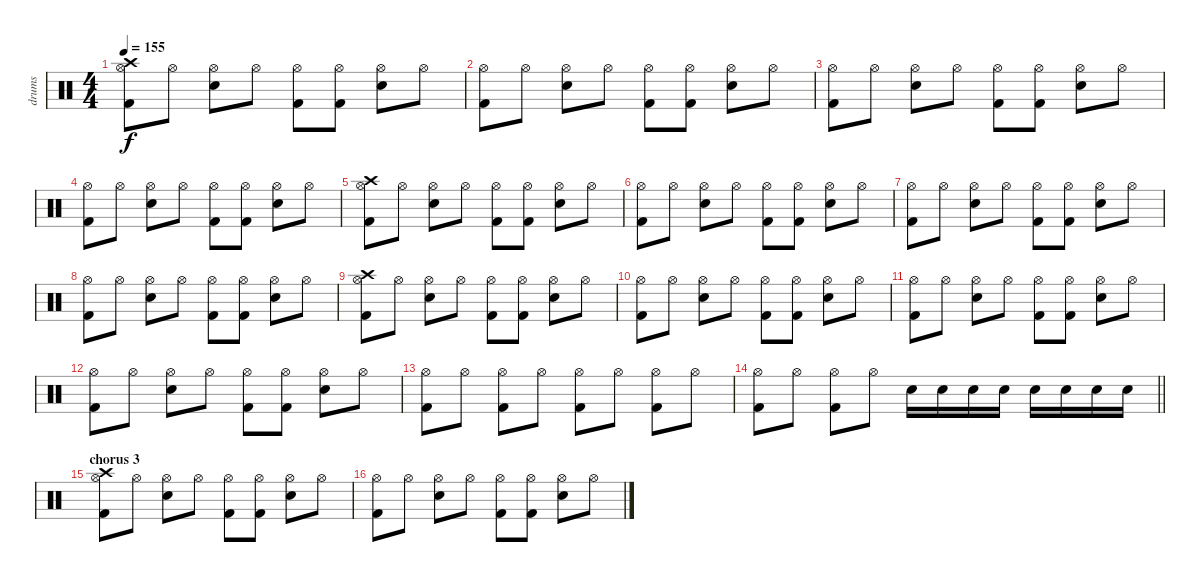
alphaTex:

\track ("drums" "drums") {instrument percussion}
\staff {score}
\articulation defaults
\ts (4 4)
\tempo 155
\clef neutral
\ks c
("Kick (hit) 2" "Hi-Hat (open)" "Crash high (hit)").8{dy f} "Hi-Hat (open)".8 ("Electric Snare (hit)" "Hi-Hat (open)").8 "Hi-Hat (open)".8 ("Kick (hit) 2" "Hi-Hat (open)").8 ("Kick (hit) 2" "Hi-Hat (open)").8 ("Electric Snare (hit)" "Hi-Hat (open)").8 "Hi-Hat (open)".8 |
("Kick (hit) 2" "Hi-Hat (open)").8 "Hi-Hat (open)".8 ("Electric Snare (hit)" "Hi-Hat (open)").8 "Hi-Hat (open)".8 ("Kick (hit) 2" "Hi-Hat (open)").8 ("Kick (hit) 2" "Hi-Hat (open)").8 ("Electric Snare (hit)" "Hi-Hat (open)").8 "Hi-Hat (open)".8 |
("Kick (hit) 2" "Hi-Hat (open)").8 "Hi-Hat (open)".8 ("Electric Snare (hit)" "Hi-Hat (open)").8 "Hi-Hat (open)".8 ("Kick (hit) 2" "Hi-Hat (open)").8 ("Kick (hit) 2" "Hi-Hat (open)").8 ("Electric Snare (hit)" "Hi-Hat (open)").8 "Hi-Hat (open)".8 |
("Kick (hit) 2" "Hi-Hat (open)").8 "Hi-Hat (open)".8 ("Electric Snare (hit)" "Hi-Hat (open)").8 "Hi-Hat (open)".8 ("Kick (hit) 2" "Hi-Hat (open)").8 ("Kick (hit) 2" "Hi-Hat (open)").8 ("Electric Snare (hit)" "Hi-Hat (open)").8 "Hi-Hat (open)".8 |
("Kick (hit) 2" "Hi-Hat (open)" "Crash high (hit)").8 "Hi-Hat (open)".8 ("Electric Snare (hit)" "Hi-Hat (open)").8 "Hi-Hat (open)".8 ("Kick (hit) 2" "Hi-Hat (open)").8 ("Kick (hit) 2" "Hi-Hat (open)").8 ("Electric Snare (hit)" "Hi-Hat (open)").8 "Hi-Hat (open)".8 |
("Kick (hit) 2" "Hi-Hat (open)").8 "Hi-Hat (open)".8 ("Electric Snare (hit)" "Hi-Hat (open)").8 "Hi-Hat (open)".8 ("Kick (hit) 2" "Hi-Hat (open)").8 ("Kick (hit) 2" "Hi-Hat (open)").8 ("Electric Snare (hit)" "Hi-Hat (open)").8 "Hi-Hat (open)".8 |
("Kick (hit) 2" "Hi-Hat (open)").8 "Hi-Hat (open)".8 ("Electric Snare (hit)" "Hi-Hat (open)").8 "Hi-Hat (open)".8 ("Kick (hit) 2" "Hi-Hat (open)").8 ("Kick (hit) 2" "Hi-Hat (open)").8 ("Electric Snare (hit)" "Hi-Hat (open)").8 "Hi-Hat (open)".8 |
("Kick (hit) 2" "Hi-Hat (open)").8 "Hi-Hat (open)".8 ("Electric Snare (hit)" "Hi-Hat (open)").8 "Hi-Hat (open)".8 ("Kick (hit) 2" "Hi-Hat (open)").8 ("Kick (hit) 2" "Hi-Hat (open)").8 ("Electric Snare (hit)" "Hi-Hat (open)").8 "Hi-Hat (open)".8 |
("Kick (hit) 2" "Hi-Hat (open)" "Crash high (hit)").8 "Hi-Hat (open)".8 ("Electric Snare (hit)" "Hi-Hat (open)").8 "Hi-Hat (open)".8 ("Kick (hit) 2" "Hi-Hat (open)").8 ("Kick (hit) 2" "Hi-Hat (open)").8 ("Electric Snare (hit)" "Hi-Hat (open)").8 "Hi-Hat (open)".8 |
("Kick (hit) 2" "Hi-Hat (open)").8 "Hi-Hat (open)".8 ("Electric Snare (hit)" "Hi-Hat (open)").8 "Hi-Hat (open)".8 ("Kick (hit) 2" "Hi-Hat (open)").8 ("Kick (hit) 2" "Hi-Hat (open)").8 ("Electric Snare (hit)" "Hi-Hat (open)").8 "Hi-Hat (open)".8 |
("Kick (hit) 2" "Hi-Hat (open)").8 "Hi-Hat (open)".8 ("Electric Snare (hit)" "Hi-Hat (open)").8 "Hi-Hat (open)".8 ("Kick (hit) 2" "Hi-Hat (open)").8 ("Kick (hit) 2" "Hi-Hat (open)").8 ("Electric Snare (hit)" "Hi-Hat (open)").8 "Hi-Hat (open)".8 |
("Kick (hit) 2" "Hi-Hat (open)").8 "Hi-Hat (open)".8 ("Electric Snare (hit)" "Hi-Hat (open)").8 "Hi-Hat (open)".8 ("Kick (hit) 2" "Hi-Hat (open)").8 ("Kick (hit) 2" "Hi-Hat (open)").8 ("Electric Snare (hit)" "Hi-Hat (open)").8 "Hi-Hat (open)".8 |
("Kick (hit) 2" "Hi-Hat (open)").8 "Hi-Hat (open)".8 ("Kick (hit) 2" "Hi-Hat (open)").8 "Hi-Hat (open)".8 ("Kick (hit) 2" "Hi-Hat (open)").8 "Hi-Hat (open)".8 ("Kick (hit) 2" "Hi-Hat (open)").8 "Hi-Hat (open)".8 |
\barLineRight lightlight
("Kick (hit) 2" "Hi-Hat (open)").8 "Hi-Hat (open)".8 ("Kick (hit) 2" "Hi-Hat (open)").8 "Hi-Hat (open)".8 "Electric Snare (hit)".16 "Electric Snare (hit)".16 "Electric Snare (hit)".16 "Electric Snare (hit)".16 "Electric Snare (hit)".16 "Electric Snare (hit)".16 "Electric Snare (hit)".16 "Electric Snare (hit)".16 |
\section ("" "chorus 3")
("Kick (hit) 2" "Hi-Hat (open)" "Crash high (hit)").8 "Hi-Hat (open)".8 ("Electric Snare (hit)" "Hi-Hat (open)").8 "Hi-Hat (open)".8 ("Kick (hit) 2" "Hi-Hat (open)").8 ("Kick (hit) 2" "Hi-Hat (open)").8 ("Electric Snare (hit)" "Hi-Hat (open)").8 "Hi-Hat (open)".8 |
("Kick (hit) 2" "Hi-Hat (open)").8 "Hi-Hat (open)".8 ("Electric Snare (hit)" "Hi-Hat (open)").8 "Hi-Hat (open)".8 ("Kick (hit) 2" "Hi-Hat (open)").8 ("Kick (hit) 2" "Hi-Hat (open)").8 ("Electric Snare (hit)" "Hi-Hat (open)").8 "Hi-Hat (open)".8
